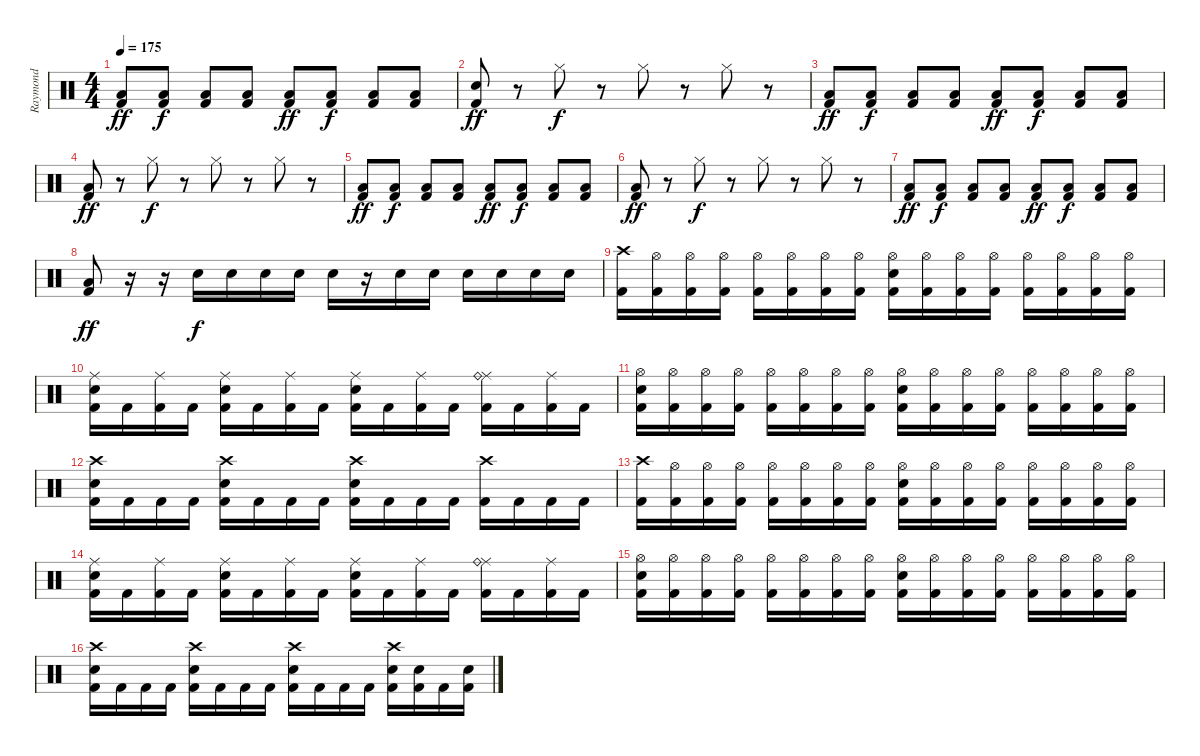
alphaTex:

\track ("Raymond" "Raymond") {instrument percussion}
\staff {score}
\articulation defaults
\ts (4 4)
\tempo 175
\clef neutral
\ks c
("Low Floor Tom (hit)" "Kick (hit) 2").8{dy ff} ("Low Floor Tom (hit)" "Kick (hit) 2").8{dy f} ("Low Floor Tom (hit)" "Kick (hit) 2").8 ("Low Floor Tom (hit)" "Kick (hit) 2").8 ("Low Floor Tom (hit)" "Kick (hit) 2").8{dy ff} ("Low Floor Tom (hit)" "Kick (hit) 2").8{dy f} ("Low Floor Tom (hit)" "Kick (hit) 2").8 ("Low Floor Tom (hit)" "Kick (hit) 2").8 |
("Electric Snare (hit)" "Kick (hit) 2").8{dy ff} r.8 "Hi-Hat (closed)".8{dy f} r.8 "Hi-Hat (closed)".8 r.8 "Hi-Hat (closed)".8 r.8 |
("Low Floor Tom (hit)" "Kick (hit) 2").8{dy ff} ("Low Floor Tom (hit)" "Kick (hit) 2").8{dy f} ("Low Floor Tom (hit)" "Kick (hit) 2").8 ("Low Floor Tom (hit)" "Kick (hit) 2").8 ("Low Floor Tom (hit)" "Kick (hit) 2").8{dy ff} ("Low Floor Tom (hit)" "Kick (hit) 2").8{dy f} ("Low Floor Tom (hit)" "Kick (hit) 2").8 ("Low Floor Tom (hit)" "Kick (hit) 2").8 |
("Low Floor Tom (hit)" "Kick (hit) 2").8{dy ff} r.8 "Hi-Hat (closed)".8{dy f} r.8 "Hi-Hat (closed)".8 r.8 "Hi-Hat (closed)".8 r.8 |
("Low Floor Tom (hit)" "Kick (hit) 2").8{dy ff} ("Low Floor Tom (hit)" "Kick (hit) 2").8{dy f} ("Low Floor Tom (hit)" "Kick (hit) 2").8 ("Low Floor Tom (hit)" "Kick (hit) 2").8 ("Low Floor Tom (hit)" "Kick (hit) 2").8{dy ff} ("Low Floor Tom (hit)" "Kick (hit) 2").8{dy f} ("Low Floor Tom (hit)" "Kick (hit) 2").8 ("Low Floor Tom (hit)" "Kick (hit) 2").8 |
("Low Floor Tom (hit)" "Kick (hit) 2").8{dy ff} r.8 "Hi-Hat (closed)".8{dy f} r.8 "Hi-Hat (closed)".8 r.8 "Hi-Hat (closed)".8 r.8 |
("Low Floor Tom (hit)" "Kick (hit) 2").8{dy ff} ("Low Floor Tom (hit)" "Kick (hit) 2").8{dy f} ("Low Floor Tom (hit)" "Kick (hit) 2").8 ("Low Floor Tom (hit)" "Kick (hit) 2").8 ("Low Floor Tom (hit)" "Kick (hit) 2").8{dy ff} ("Low Floor Tom (hit)" "Kick (hit) 2").8{dy f} ("Low Floor Tom (hit)" "Kick (hit) 2").8 ("Low Floor Tom (hit)" "Kick (hit) 2").8 |
("Low Floor Tom (hit)" "Kick (hit) 2").8{dy ff} r.16 r.16 "Electric Snare (hit)".16{dy f} "Electric Snare (hit)".16 "Electric Snare (hit)".16 "Electric Snare (hit)".16 "Electric Snare (hit)".16 r.16 "Electric Snare (hit)".16 "Electric Snare (hit)".16 "Electric Snare (hit)".16 "Electric Snare (hit)".16 "Electric Snare (hit)".16 "Electric Snare (hit)".16 |
("Crash high (hit)" "Kick (hit) 2").16 ("Hi-Hat (open)" "Kick (hit) 2").16 ("Hi-Hat (open)" "Kick (hit) 2").16 ("Hi-Hat (open)" "Kick (hit) 2").16 ("Hi-Hat (open)" "Kick (hit) 2").16 ("Hi-Hat (open)" "Kick (hit) 2").16 ("Hi-Hat (open)" "Kick (hit) 2").16 ("Hi-Hat (open)" "Kick (hit) 2").16 ("Hi-Hat (open)" "Electric Snare (hit)" "Kick (hit) 2").16 ("Hi-Hat (open)" "Kick (hit) 2").16 ("Hi-Hat (open)" "Kick (hit) 2").16 ("Hi-Hat (open)" "Kick (hit) 2").16 ("Hi-Hat (open)" "Kick (hit) 2").16 ("Hi-Hat (open)" "Kick (hit) 2").16 ("Hi-Hat (open)" "Kick (hit) 2").16 ("Hi-Hat (open)" "Kick (hit) 2").16 |
("Ride (middle)" "Electric Snare (hit)" "Kick (hit) 2").16 "Kick (hit) 2".16 ("Ride (middle)" "Kick (hit) 2").16 "Kick (hit) 2".16 ("Ride (middle)" "Electric Snare (hit)" "Kick (hit) 2").16 "Kick (hit) 2".16 ("Ride (middle)" "Kick (hit) 2").16 "Kick (hit) 2".16 ("Ride (middle)" "Electric Snare (hit)" "Kick (hit) 2").16 "Kick (hit) 2".16 ("Ride (middle)" "Kick (hit) 2").16 "Kick (hit) 2".16 ("Ride (middle)" "Ride (bell)" "Kick (hit) 2").16 "Kick (hit) 2".16 ("Ride (middle)" "Kick (hit) 2").16 "Kick (hit) 2".16 |
("Hi-Hat (open)" "Electric Snare (hit)" "Kick (hit) 2").16 ("Hi-Hat (open)" "Kick (hit) 2").16 ("Hi-Hat (open)" "Kick (hit) 2").16 ("Hi-Hat (open)" "Kick (hit) 2").16 ("Hi-Hat (open)" "Kick (hit) 2").16 ("Hi-Hat (open)" "Kick (hit) 2").16 ("Hi-Hat (open)" "Kick (hit) 2").16 ("Hi-Hat (open)" "Kick (hit) 2").16 ("Hi-Hat (open)" "Electric Snare (hit)" "Kick (hit) 2").16 ("Hi-Hat (open)" "Kick (hit) 2").16 ("Hi-Hat (open)" "Kick (hit) 2").16 ("Hi-Hat (open)" "Kick (hit) 2").16 ("Hi-Hat (open)" "Kick (hit) 2").16 ("Hi-Hat (open)" "Kick (hit) 2").16 ("Hi-Hat (open)" "Kick (hit) 2").16 ("Hi-Hat (open)" "Kick (hit) 2").16 |
("Crash high (hit)" "Electric Snare (hit)" "Kick (hit) 2").16 "Kick (hit) 2".16 "Kick (hit) 2".16 "Kick (hit) 2".16 ("Crash high (hit)" "Electric Snare (hit)" "Kick (hit) 2").16 "Kick (hit) 2".16 "Kick (hit) 2".16 "Kick (hit) 2".16 ("Crash high (hit)" "Electric Snare (hit)" "Kick (hit) 2").16 "Kick (hit) 2".16 "Kick (hit) 2".16 "Kick (hit) 2".16 ("Crash high (hit)" "Kick (hit) 2").16 "Kick (hit) 2".16 "Kick (hit) 2".16 "Kick (hit) 2".16 |
("Crash high (hit)" "Kick (hit) 2").16 ("Hi-Hat (open)" "Kick (hit) 2").16 ("Hi-Hat (open)" "Kick (hit) 2").16 ("Hi-Hat (open)" "Kick (hit) 2").16 ("Hi-Hat (open)" "Kick (hit) 2").16 ("Hi-Hat (open)" "Kick (hit) 2").16 ("Hi-Hat (open)" "Kick (hit) 2").16 ("Hi-Hat (open)" "Kick (hit) 2").16 ("Hi-Hat (open)" "Electric Snare (hit)" "Kick (hit) 2").16 ("Hi-Hat (open)" "Kick (hit) 2").16 ("Hi-Hat (open)" "Kick (hit) 2").16 ("Hi-Hat (open)" "Kick (hit) 2").16 ("Hi-Hat (open)" "Kick (hit) 2").16 ("Hi-Hat (open)" "Kick (hit) 2").16 ("Hi-Hat (open)" "Kick (hit) 2").16 ("Hi-Hat (open)" "Kick (hit) 2").16 |
("Ride (middle)" "Electric Snare (hit)" "Kick (hit) 2").16 "Kick (hit) 2".16 ("Ride (middle)" "Kick (hit) 2").16 "Kick (hit) 2".16 ("Ride (middle)" "Electric Snare (hit)" "Kick (hit) 2").16 "Kick (hit) 2".16 ("Ride (middle)" "Kick (hit) 2").16 "Kick (hit) 2".16 ("Ride (middle)" "Electric Snare (hit)" "Kick (hit) 2").16 "Kick (hit) 2".16 ("Ride (middle)" "Kick (hit) 2").16 "Kick (hit) 2".16 ("Ride (middle)" "Ride (bell)" "Kick (hit) 2").16 "Kick (hit) 2".16 ("Ride (middle)" "Kick (hit) 2").16 "Kick (hit) 2".16 |
("Hi-Hat (open)" "Electric Snare (hit)" "Kick (hit) 2").16 ("Hi-Hat (open)" "Kick (hit) 2").16 ("Hi-Hat (open)" "Kick (hit) 2").16 ("Hi-Hat (open)" "Kick (hit) 2").16 ("Hi-Hat (open)" "Kick (hit) 2").16 ("Hi-Hat (open)" "Kick (hit) 2").16 ("Hi-Hat (open)" "Kick (hit) 2").16 ("Hi-Hat (open)" "Kick (hit) 2").16 ("Hi-Hat (open)" "Electric Snare (hit)" "Kick (hit) 2").16 ("Hi-Hat (open)" "Kick (hit) 2").16 ("Hi-Hat (open)" "Kick (hit) 2").16 ("Hi-Hat (open)" "Kick (hit) 2").16 ("Hi-Hat (open)" "Kick (hit) 2").16 ("Hi-Hat (open)" "Kick (hit) 2").16 ("Hi-Hat (open)" "Kick (hit) 2").16 ("Hi-Hat (open)" "Kick (hit) 2").16 |
("Crash high (hit)" "Electric Snare (hit)" "Kick (hit) 2").16 "Kick (hit) 2".16 "Kick (hit) 2".16 "Kick (hit) 2".16 ("Crash high (hit)" "Electric Snare (hit)" "Kick (hit) 2").16 "Kick (hit) 2".16 "Kick (hit) 2".16 "Kick (hit) 2".16 ("Crash high (hit)" "Electric Snare (hit)" "Kick (hit) 2").16 "Kick (hit) 2".16 "Kick (hit) 2".16 "Kick (hit) 2".16 ("Crash high (hit)" "Electric Snare (hit)" "Kick (hit) 2").16 ("Electric Snare (hit)" "Kick (hit) 2").16 "Kick (hit) 2".16 ("Electric Snare (hit)" "Kick (hit) 2").16
